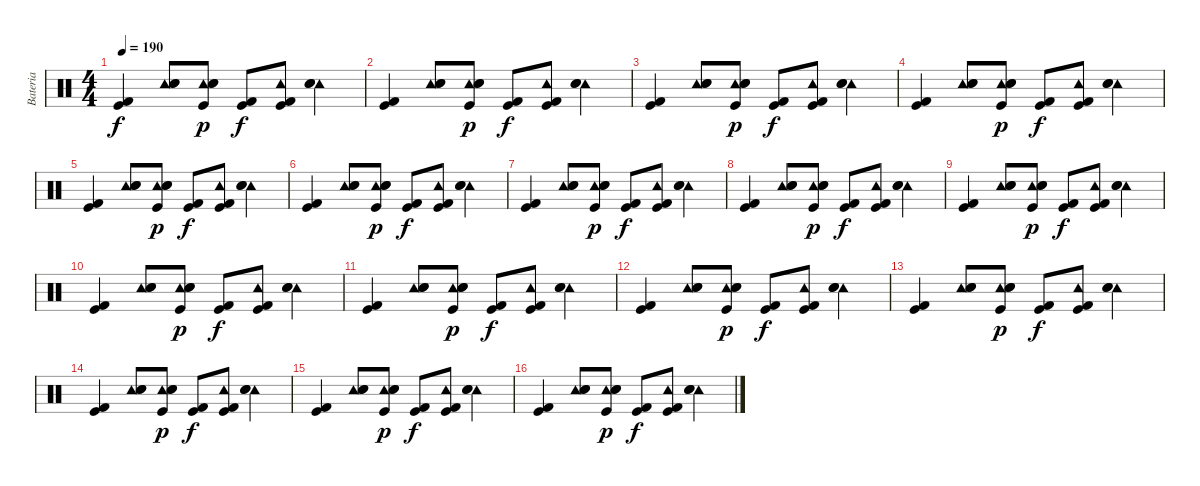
\track ("Bateria" "Bateria") {instrument percussion}
\staff {score}
\articulation defaults
\ts (4 4)
\tempo 190
\clef neutral
\ks c
("Kick (hit) 2" "Kick (hit)").4{dy f} ("Tambourine (hit)" "Snare (hit) 2" "Electric Snare (hit)").8 ("Tambourine (hit)" "Snare (hit) 2" "Electric Snare (hit)" "Kick (hit)").8{dy p} ("Kick (hit) 2" "Kick (hit)").8{dy f} ("Tambourine (hit)" "Kick (hit) 2" "Kick (hit)").8 ("Tambourine (hit)" "Snare (hit) 2" "Electric Snare (hit)").4 |
("Kick (hit) 2" "Kick (hit)").4 ("Tambourine (hit)" "Snare (hit) 2" "Electric Snare (hit)").8 ("Tambourine (hit)" "Snare (hit) 2" "Electric Snare (hit)" "Kick (hit)").8{dy p} ("Kick (hit) 2" "Kick (hit)").8{dy f} ("Tambourine (hit)" "Kick (hit) 2" "Kick (hit)").8 ("Tambourine (hit)" "Snare (hit) 2" "Electric Snare (hit)").4 |
("Kick (hit) 2" "Kick (hit)").4 ("Tambourine (hit)" "Snare (hit) 2" "Electric Snare (hit)").8 ("Tambourine (hit)" "Snare (hit) 2" "Electric Snare (hit)" "Kick (hit)").8{dy p} ("Kick (hit) 2" "Kick (hit)").8{dy f} ("Tambourine (hit)" "Kick (hit) 2" "Kick (hit)").8 ("Tambourine (hit)" "Snare (hit) 2" "Electric Snare (hit)").4 |
("Kick (hit) 2" "Kick (hit)").4 ("Tambourine (hit)" "Snare (hit) 2" "Electric Snare (hit)").8 ("Tambourine (hit)" "Snare (hit) 2" "Electric Snare (hit)" "Kick (hit)").8{dy p} ("Kick (hit) 2" "Kick (hit)").8{dy f} ("Tambourine (hit)" "Kick (hit) 2" "Kick (hit)").8 ("Tambourine (hit)" "Snare (hit) 2" "Electric Snare (hit)").4 |
("Kick (hit) 2" "Kick (hit)").4 ("Tambourine (hit)" "Snare (hit) 2" "Electric Snare (hit)").8 ("Tambourine (hit)" "Snare (hit) 2" "Electric Snare (hit)" "Kick (hit)").8{dy p} ("Kick (hit) 2" "Kick (hit)").8{dy f} ("Tambourine (hit)" "Kick (hit) 2" "Kick (hit)").8 ("Tambourine (hit)" "Snare (hit) 2" "Electric Snare (hit)").4 |
("Kick (hit) 2" "Kick (hit)").4 ("Tambourine (hit)" "Snare (hit) 2" "Electric Snare (hit)").8 ("Tambourine (hit)" "Snare (hit) 2" "Electric Snare (hit)" "Kick (hit)").8{dy p} ("Kick (hit) 2" "Kick (hit)").8{dy f} ("Tambourine (hit)" "Kick (hit) 2" "Kick (hit)").8 ("Tambourine (hit)" "Snare (hit) 2" "Electric Snare (hit)").4 |
("Kick (hit) 2" "Kick (hit)").4 ("Tambourine (hit)" "Snare (hit) 2" "Electric Snare (hit)").8 ("Tambourine (hit)" "Snare (hit) 2" "Electric Snare (hit)" "Kick (hit)").8{dy p} ("Kick (hit) 2" "Kick (hit)").8{dy f} ("Tambourine (hit)" "Kick (hit) 2" "Kick (hit)").8 ("Tambourine (hit)" "Snare (hit) 2" "Electric Snare (hit)").4 |
("Kick (hit) 2" "Kick (hit)").4 ("Tambourine (hit)" "Snare (hit) 2" "Electric Snare (hit)").8 ("Tambourine (hit)" "Snare (hit) 2" "Electric Snare (hit)" "Kick (hit)").8{dy p} ("Kick (hit) 2" "Kick (hit)").8{dy f} ("Tambourine (hit)" "Kick (hit) 2" "Kick (hit)").8 ("Tambourine (hit)" "Snare (hit) 2" "Electric Snare (hit)").4 |
("Kick (hit) 2" "Kick (hit)").4 ("Tambourine (hit)" "Snare (hit) 2" "Electric Snare (hit)").8 ("Tambourine (hit)" "Snare (hit) 2" "Electric Snare (hit)" "Kick (hit)").8{dy p} ("Kick (hit) 2" "Kick (hit)").8{dy f} ("Tambourine (hit)" "Kick (hit) 2" "Kick (hit)").8 ("Tambourine (hit)" "Snare (hit) 2" "Electric Snare (hit)").4 |
("Kick (hit) 2" "Kick (hit)").4 ("Tambourine (hit)" "Snare (hit) 2" "Electric Snare (hit)").8 ("Tambourine (hit)" "Snare (hit) 2" "Electric Snare (hit)" "Kick (hit)").8{dy p} ("Kick (hit) 2" "Kick (hit)").8{dy f} ("Tambourine (hit)" "Kick (hit) 2" "Kick (hit)").8 ("Tambourine (hit)" "Snare (hit) 2" "Electric Snare (hit)").4 |
("Kick (hit) 2" "Kick (hit)").4 ("Tambourine (hit)" "Snare (hit) 2" "Electric Snare (hit)").8 ("Tambourine (hit)" "Snare (hit) 2" "Electric Snare (hit)" "Kick (hit)").8{dy p} ("Kick (hit) 2" "Kick (hit)").8{dy f} ("Tambourine (hit)" "Kick (hit) 2" "Kick (hit)").8 ("Tambourine (hit)" "Snare (hit) 2" "Electric Snare (hit)").4 |
("Kick (hit) 2" "Kick (hit)").4 ("Tambourine (hit)" "Snare (hit) 2" "Electric Snare (hit)").8 ("Tambourine (hit)" "Snare (hit) 2" "Electric Snare (hit)" "Kick (hit)").8{dy p} ("Kick (hit) 2" "Kick (hit)").8{dy f} ("Tambourine (hit)" "Kick (hit) 2" "Kick (hit)").8 ("Tambourine (hit)" "Snare (hit) 2" "Electric Snare (hit)").4 |
("Kick (hit) 2" "Kick (hit)").4 ("Tambourine (hit)" "Snare (hit) 2" "Electric Snare (hit)").8 ("Tambourine (hit)" "Snare (hit) 2" "Electric Snare (hit)" "Kick (hit)").8{dy p} ("Kick (hit) 2" "Kick (hit)").8{dy f} ("Tambourine (hit)" "Kick (hit) 2" "Kick (hit)").8 ("Tambourine (hit)" "Snare (hit) 2" "Electric Snare (hit)").4 |
("Kick (hit) 2" "Kick (hit)").4 ("Tambourine (hit)" "Snare (hit) 2" "Electric Snare (hit)").8 ("Tambourine (hit)" "Snare (hit) 2" "Electric Snare (hit)" "Kick (hit)").8{dy p} ("Kick (hit) 2" "Kick (hit)").8{dy f} ("Tambourine (hit)" "Kick (hit) 2" "Kick (hit)").8 ("Tambourine (hit)" "Snare (hit) 2" "Electric Snare (hit)").4 |
("Kick (hit) 2" "Kick (hit)").4 ("Tambourine (hit)" "Snare (hit) 2" "Electric Snare (hit)").8 ("Tambourine (hit)" "Snare (hit) 2" "Electric Snare (hit)" "Kick (hit)").8{dy p} ("Kick (hit) 2" "Kick (hit)").8{dy f} ("Tambourine (hit)" "Kick (hit) 2" "Kick (hit)").8 ("Tambourine (hit)" "Snare (hit) 2" "Electric Snare (hit)").4 |
("Kick (hit) 2" "Kick (hit)").4 ("Tambourine (hit)" "Snare (hit) 2" "Electric Snare (hit)").8 ("Tambourine (hit)" "Snare (hit) 2" "Electric Snare (hit)" "Kick (hit)").8{dy p} ("Kick (hit) 2" "Kick (hit)").8{dy f} ("Tambourine (hit)" "Kick (hit) 2" "Kick (hit)").8 ("Tambourine (hit)" "Snare (hit) 2" "Electric Snare (hit)").4
